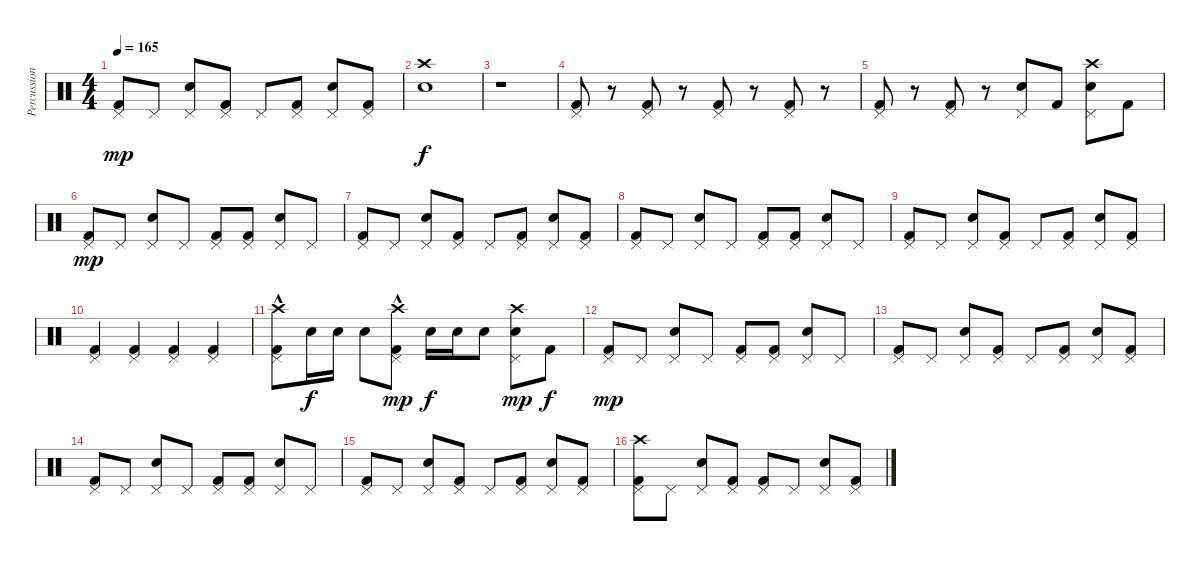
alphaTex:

\track ("Percussion" "Percussion") {instrument percussion}
\staff {score}
\articulation defaults
\ts (4 4)
\tempo 165
\clef neutral
\ks c
("Pedal Hi-Hat (hit)" "Kick (hit) 2").8{dy mp} "Pedal Hi-Hat (hit)".8 ("Pedal Hi-Hat (hit)" "Snare (hit) 2").8 ("Pedal Hi-Hat (hit)" "Kick (hit) 2").8 "Pedal Hi-Hat (hit)".8 ("Pedal Hi-Hat (hit)" "Kick (hit) 2").8 ("Pedal Hi-Hat (hit)" "Snare (hit) 2").8 ("Pedal Hi-Hat (hit)" "Kick (hit) 2").8 |
("Crash high (hit)" "Snare (hit) 2").1{dy f} |
r.1 |
("Pedal Hi-Hat (hit)" "Kick (hit) 2").8 r.8 ("Pedal Hi-Hat (hit)" "Kick (hit) 2").8 r.8 ("Pedal Hi-Hat (hit)" "Kick (hit) 2").8 r.8 ("Pedal Hi-Hat (hit)" "Kick (hit) 2").8 r.8 |
("Pedal Hi-Hat (hit)" "Kick (hit) 2").8 r.8 ("Pedal Hi-Hat (hit)" "Kick (hit) 2").8 r.8 ("Snare (hit) 2" "Pedal Hi-Hat (hit)").8 "Kick (hit) 2".8 ("Crash high (hit)" "Snare (hit) 2" "Pedal Hi-Hat (hit)").8 "Kick (hit) 2".8 |
("Pedal Hi-Hat (hit)" "Kick (hit) 2").8{dy mp} "Pedal Hi-Hat (hit)".8 ("Pedal Hi-Hat (hit)" "Snare (hit) 2").8 "Pedal Hi-Hat (hit)".8 ("Pedal Hi-Hat (hit)" "Kick (hit) 2").8 ("Pedal Hi-Hat (hit)" "Kick (hit) 2").8 ("Pedal Hi-Hat (hit)" "Snare (hit) 2").8 "Pedal Hi-Hat (hit)".8 |
("Pedal Hi-Hat (hit)" "Kick (hit) 2").8 "Pedal Hi-Hat (hit)".8 ("Pedal Hi-Hat (hit)" "Snare (hit) 2").8 ("Pedal Hi-Hat (hit)" "Kick (hit) 2").8 "Pedal Hi-Hat (hit)".8 ("Pedal Hi-Hat (hit)" "Kick (hit) 2").8 ("Pedal Hi-Hat (hit)" "Snare (hit) 2").8 ("Pedal Hi-Hat (hit)" "Kick (hit) 2").8 |
("Pedal Hi-Hat (hit)" "Kick (hit) 2").8 "Pedal Hi-Hat (hit)".8 ("Pedal Hi-Hat (hit)" "Snare (hit) 2").8 "Pedal Hi-Hat (hit)".8 ("Pedal Hi-Hat (hit)" "Kick (hit) 2").8 ("Pedal Hi-Hat (hit)" "Kick (hit) 2").8 ("Pedal Hi-Hat (hit)" "Snare (hit) 2").8 "Pedal Hi-Hat (hit)".8 |
("Pedal Hi-Hat (hit)" "Kick (hit) 2").8 "Pedal Hi-Hat (hit)".8 ("Pedal Hi-Hat (hit)" "Snare (hit) 2").8 ("Pedal Hi-Hat (hit)" "Kick (hit) 2").8 "Pedal Hi-Hat (hit)".8 ("Pedal Hi-Hat (hit)" "Kick (hit) 2").8 ("Pedal Hi-Hat (hit)" "Snare (hit) 2").8 ("Pedal Hi-Hat (hit)" "Kick (hit) 2").8 |
("Pedal Hi-Hat (hit)" "Kick (hit) 2").4 ("Pedal Hi-Hat (hit)" "Kick (hit) 2").4 ("Pedal Hi-Hat (hit)" "Kick (hit) 2").4 ("Pedal Hi-Hat (hit)" "Kick (hit) 2").4 |
("Pedal Hi-Hat (hit)" "Kick (hit) 2" "Crash high (hit)"{hac}).8 "Snare (hit) 2".16{dy f} "Snare (hit) 2".16 "Snare (hit) 2".8 ("Pedal Hi-Hat (hit)" "Kick (hit) 2" "Crash high (hit)"{hac}).8{dy mp} "Snare (hit) 2".16{dy f} "Snare (hit) 2".16 "Snare (hit) 2".8 ("Pedal Hi-Hat (hit)" "Snare (hit) 2" "Crash high (hit)").8{dy mp} "Kick (hit) 2".8{dy f} |
("Pedal Hi-Hat (hit)" "Kick (hit) 2").8{dy mp} "Pedal Hi-Hat (hit)".8 ("Pedal Hi-Hat (hit)" "Snare (hit) 2").8 "Pedal Hi-Hat (hit)".8 ("Pedal Hi-Hat (hit)" "Kick (hit) 2").8 ("Pedal Hi-Hat (hit)" "Kick (hit) 2").8 ("Pedal Hi-Hat (hit)" "Snare (hit) 2").8 "Pedal Hi-Hat (hit)".8 |
("Pedal Hi-Hat (hit)" "Kick (hit) 2").8 "Pedal Hi-Hat (hit)".8 ("Pedal Hi-Hat (hit)" "Snare (hit) 2").8 ("Pedal Hi-Hat (hit)" "Kick (hit) 2").8 "Pedal Hi-Hat (hit)".8 ("Pedal Hi-Hat (hit)" "Kick (hit) 2").8 ("Pedal Hi-Hat (hit)" "Snare (hit) 2").8 ("Pedal Hi-Hat (hit)" "Kick (hit) 2").8 |
("Pedal Hi-Hat (hit)" "Kick (hit) 2").8 "Pedal Hi-Hat (hit)".8 ("Pedal Hi-Hat (hit)" "Snare (hit) 2").8 "Pedal Hi-Hat (hit)".8 ("Pedal Hi-Hat (hit)" "Kick (hit) 2").8 ("Pedal Hi-Hat (hit)" "Kick (hit) 2").8 ("Pedal Hi-Hat (hit)" "Snare (hit) 2").8 "Pedal Hi-Hat (hit)".8 |
("Pedal Hi-Hat (hit)" "Kick (hit) 2").8 "Pedal Hi-Hat (hit)".8 ("Pedal Hi-Hat (hit)" "Snare (hit) 2").8 ("Pedal Hi-Hat (hit)" "Kick (hit) 2").8 "Pedal Hi-Hat (hit)".8 ("Pedal Hi-Hat (hit)" "Kick (hit) 2").8 ("Pedal Hi-Hat (hit)" "Snare (hit) 2").8 ("Pedal Hi-Hat (hit)" "Kick (hit) 2").8 |
("Crash high (hit)" "Pedal Hi-Hat (hit)" "Kick (hit) 2").8 "Pedal Hi-Hat (hit)".8 ("Snare (hit) 2" "Pedal Hi-Hat (hit)").8 ("Kick (hit) 2" "Pedal Hi-Hat (hit)").8 ("Kick (hit) 2" "Pedal Hi-Hat (hit)").8 "Pedal Hi-Hat (hit)".8 ("Snare (hit) 2" "Pedal Hi-Hat (hit)").8 ("Kick (hit) 2" "Pedal Hi-Hat (hit)").8
